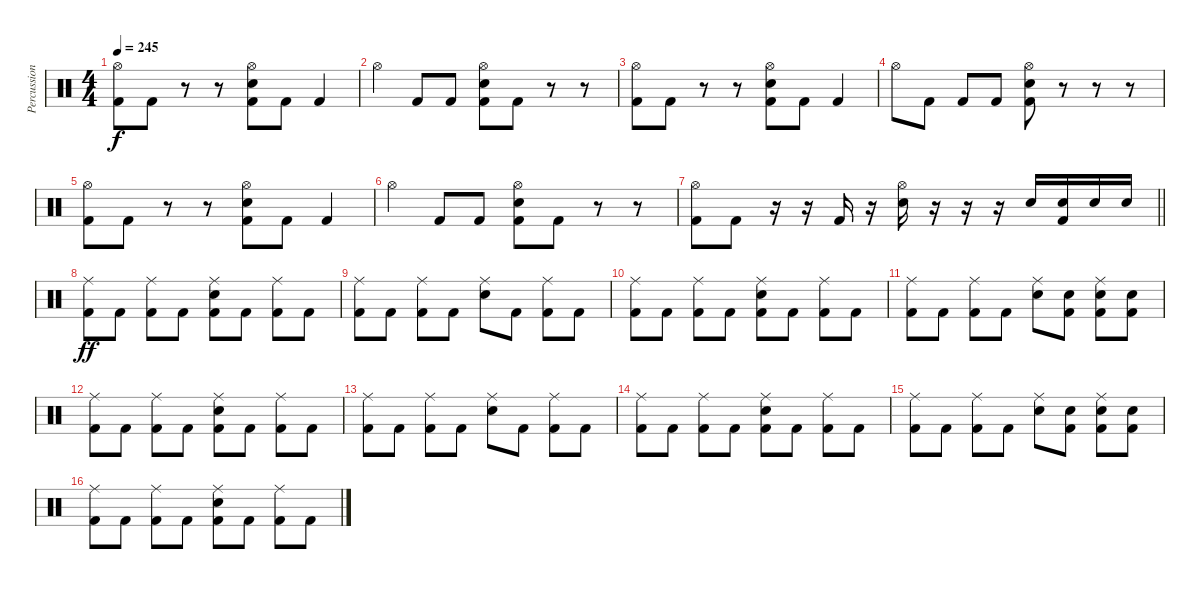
\track ("Percussion" "Percussion") {instrument percussion}
\staff {score}
\articulation defaults
\ts (4 4)
\tempo 245
\clef neutral
\ks c
("Hi-Hat (open)" "Kick (hit) 2").8{dy f} "Kick (hit) 2".8 r.8 r.8 ("Hi-Hat (open)" "Electric Snare (hit)" "Kick (hit) 2").8 "Kick (hit) 2".8 "Kick (hit) 2".4 |
"Hi-Hat (open)".4 "Kick (hit) 2".8 "Kick (hit) 2".8 ("Hi-Hat (open)" "Electric Snare (hit)" "Kick (hit) 2").8 "Kick (hit) 2".8 r.8 r.8 |
("Hi-Hat (open)" "Kick (hit) 2").8 "Kick (hit) 2".8 r.8 r.8 ("Hi-Hat (open)" "Electric Snare (hit)" "Kick (hit) 2").8 "Kick (hit) 2".8 "Kick (hit) 2".4 |
"Hi-Hat (open)".8 "Kick (hit) 2".8 "Kick (hit) 2".8 "Kick (hit) 2".8 ("Hi-Hat (open)" "Electric Snare (hit)" "Kick (hit) 2").8 r.8 r.8 r.8 |
("Hi-Hat (open)" "Kick (hit) 2").8 "Kick (hit) 2".8 r.8 r.8 ("Hi-Hat (open)" "Electric Snare (hit)" "Kick (hit) 2").8 "Kick (hit) 2".8 "Kick (hit) 2".4 |
"Hi-Hat (open)".4 "Kick (hit) 2".8 "Kick (hit) 2".8 ("Hi-Hat (open)" "Electric Snare (hit)" "Kick (hit) 2").8 "Kick (hit) 2".8 r.8 r.8 |
\barLineRight lightlight
("Hi-Hat (open)" "Kick (hit) 2").8 "Kick (hit) 2".8 r.16 r.16 "Kick (hit) 2".16 r.16 ("Hi-Hat (open)" "Electric Snare (hit)").16 r.16 r.16 r.16 "Electric Snare (hit)".16 ("Electric Snare (hit)" "Kick (hit) 2").16 "Electric Snare (hit)".16 "Electric Snare (hit)".16 |
("Ride (middle)" "Kick (hit) 2").8{dy ff} "Kick (hit) 2".8 ("Ride (middle)" "Kick (hit) 2").8 "Kick (hit) 2".8 ("Ride (middle)" "Electric Snare (hit)" "Kick (hit) 2").8 "Kick (hit) 2".8 ("Ride (middle)" "Kick (hit) 2").8 "Kick (hit) 2".8 |
("Ride (middle)" "Kick (hit) 2").8 "Kick (hit) 2".8 ("Ride (middle)" "Kick (hit) 2").8 "Kick (hit) 2".8 ("Ride (middle)" "Electric Snare (hit)").8 "Kick (hit) 2".8 ("Ride (middle)" "Kick (hit) 2").8 "Kick (hit) 2".8 |
("Ride (middle)" "Kick (hit) 2").8 "Kick (hit) 2".8 ("Ride (middle)" "Kick (hit) 2").8 "Kick (hit) 2".8 ("Ride (middle)" "Electric Snare (hit)" "Kick (hit) 2").8 "Kick (hit) 2".8 ("Ride (middle)" "Kick (hit) 2").8 "Kick (hit) 2".8 |
("Ride (middle)" "Kick (hit) 2").8 "Kick (hit) 2".8 ("Ride (middle)" "Kick (hit) 2").8 "Kick (hit) 2".8 ("Ride (middle)" "Electric Snare (hit)").8 ("Electric Snare (hit)" "Kick (hit) 2").8 ("Ride (middle)" "Electric Snare (hit)" "Kick (hit) 2").8 ("Electric Snare (hit)" "Kick (hit) 2").8 |
("Ride (middle)" "Kick (hit) 2").8 "Kick (hit) 2".8 ("Ride (middle)" "Kick (hit) 2").8 "Kick (hit) 2".8 ("Ride (middle)" "Electric Snare (hit)" "Kick (hit) 2").8 "Kick (hit) 2".8 ("Ride (middle)" "Kick (hit) 2").8 "Kick (hit) 2".8 |
("Ride (middle)" "Kick (hit) 2").8 "Kick (hit) 2".8 ("Ride (middle)" "Kick (hit) 2").8 "Kick (hit) 2".8 ("Ride (middle)" "Electric Snare (hit)").8 "Kick (hit) 2".8 ("Ride (middle)" "Kick (hit) 2").8 "Kick (hit) 2".8 |
("Ride (middle)" "Kick (hit) 2").8 "Kick (hit) 2".8 ("Ride (middle)" "Kick (hit) 2").8 "Kick (hit) 2".8 ("Ride (middle)" "Electric Snare (hit)" "Kick (hit) 2").8 "Kick (hit) 2".8 ("Ride (middle)" "Kick (hit) 2").8 "Kick (hit) 2".8 |
("Ride (middle)" "Kick (hit) 2").8 "Kick (hit) 2".8 ("Ride (middle)" "Kick (hit) 2").8 "Kick (hit) 2".8 ("Ride (middle)" "Electric Snare (hit)").8 ("Electric Snare (hit)" "Kick (hit) 2").8 ("Ride (middle)" "Electric Snare (hit)" "Kick (hit) 2").8 ("Electric Snare (hit)" "Kick (hit) 2").8 |
("Ride (middle)" "Kick (hit) 2").8 "Kick (hit) 2".8 ("Ride (middle)" "Kick (hit) 2").8 "Kick (hit) 2".8 ("Ride (middle)" "Electric Snare (hit)" "Kick (hit) 2").8 "Kick (hit) 2".8 ("Ride (middle)" "Kick (hit) 2").8 "Kick (hit) 2".8
